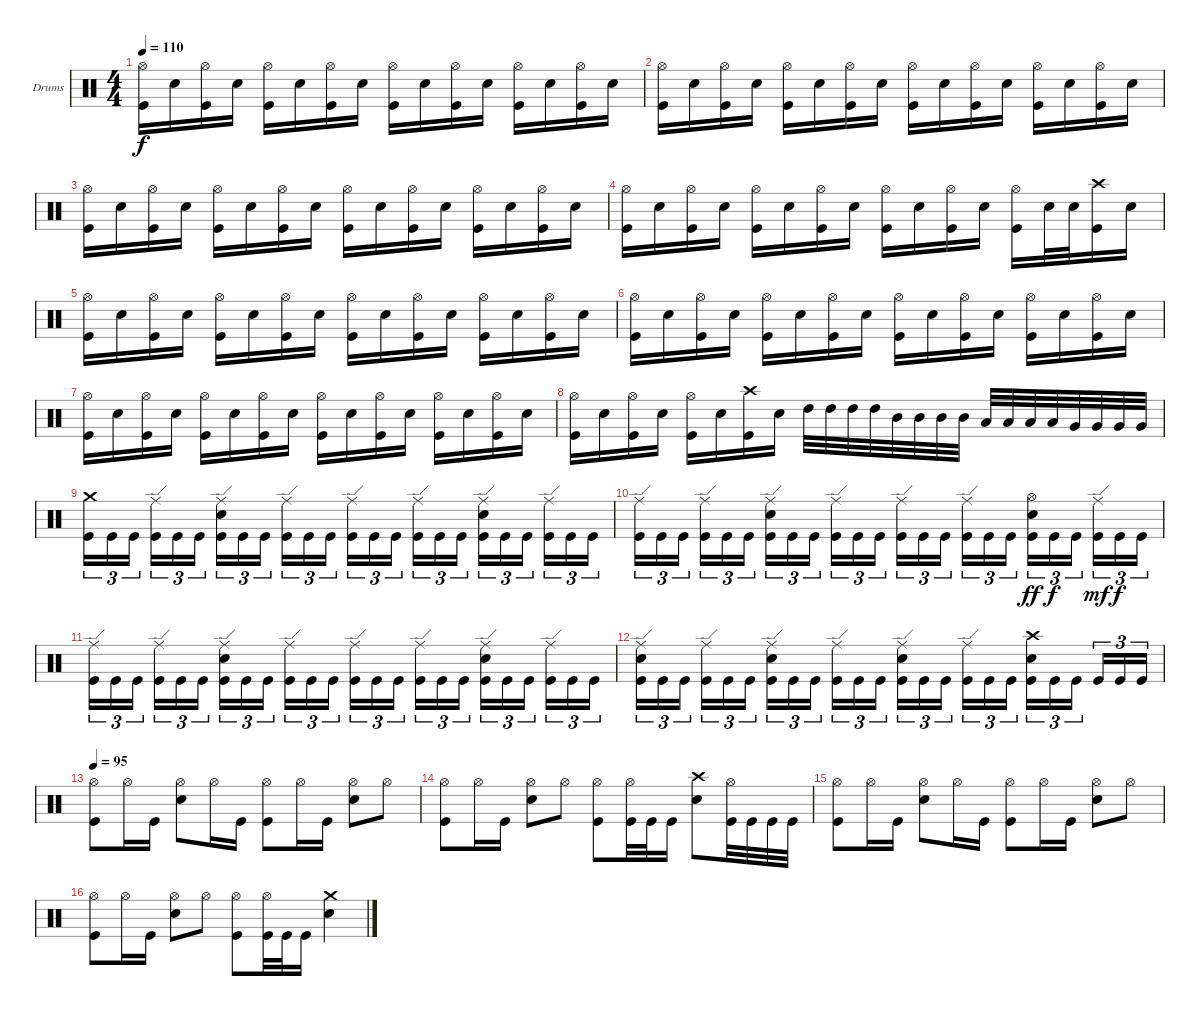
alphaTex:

\defaultSystemsLayout 4
\bracketExtendMode groupsimilarinstruments
\firstSystemTrackNameOrientation horizontal
\otherSystemsTrackNameOrientation horizontal
\track ("Drumkit" "Drums") {instrument percussion}
\staff {score}
\articulation defaults
\ts (4 4)
\tempo 110
\clef neutral
\ks c
("Hi-Hat (open)" "Kick (hit)").16{dy f} "Snare (hit) 2".16 ("Hi-Hat (open)" "Kick (hit)").16 "Snare (hit) 2".16 ("Hi-Hat (open)" "Kick (hit)").16 "Snare (hit) 2".16 ("Hi-Hat (open)" "Kick (hit)").16 "Snare (hit) 2".16 ("Hi-Hat (open)" "Kick (hit)").16 "Snare (hit) 2".16 ("Hi-Hat (open)" "Kick (hit)").16 "Snare (hit) 2".16 ("Hi-Hat (open)" "Kick (hit)").16 "Snare (hit) 2".16 ("Hi-Hat (open)" "Kick (hit)").16 "Snare (hit) 2".16 |
("Hi-Hat (open)" "Kick (hit)").16 "Snare (hit) 2".16 ("Hi-Hat (open)" "Kick (hit)").16 "Snare (hit) 2".16 ("Hi-Hat (open)" "Kick (hit)").16 "Snare (hit) 2".16 ("Hi-Hat (open)" "Kick (hit)").16 "Snare (hit) 2".16 ("Hi-Hat (open)" "Kick (hit)").16 "Snare (hit) 2".16 ("Hi-Hat (open)" "Kick (hit)").16 "Snare (hit) 2".16 ("Hi-Hat (open)" "Kick (hit)").16 "Snare (hit) 2".16 ("Hi-Hat (open)" "Kick (hit)").16 "Snare (hit) 2".16 |
("Hi-Hat (open)" "Kick (hit)").16 "Snare (hit) 2".16 ("Hi-Hat (open)" "Kick (hit)").16 "Snare (hit) 2".16 ("Hi-Hat (open)" "Kick (hit)").16 "Snare (hit) 2".16 ("Hi-Hat (open)" "Kick (hit)").16 "Snare (hit) 2".16 ("Hi-Hat (open)" "Kick (hit)").16 "Snare (hit) 2".16 ("Hi-Hat (open)" "Kick (hit)").16 "Snare (hit) 2".16 ("Hi-Hat (open)" "Kick (hit)").16 "Snare (hit) 2".16 ("Hi-Hat (open)" "Kick (hit)").16 "Snare (hit) 2".16 |
("Hi-Hat (open)" "Kick (hit)").16 "Snare (hit) 2".16 ("Hi-Hat (open)" "Kick (hit)").16 "Snare (hit) 2".16 ("Hi-Hat (open)" "Kick (hit)").16 "Snare (hit) 2".16 ("Hi-Hat (open)" "Kick (hit)").16 "Snare (hit) 2".16 ("Hi-Hat (open)" "Kick (hit)").16 "Snare (hit) 2".16 ("Hi-Hat (open)" "Kick (hit)").16 "Snare (hit) 2".16 ("Hi-Hat (open)" "Kick (hit)").16 "Snare (hit) 2".32 "Snare (hit) 2".32 ("Crash high (hit)" "Kick (hit)").16 "Snare (hit) 2".16 |
("Hi-Hat (open)" "Kick (hit)").16 "Snare (hit) 2".16 ("Hi-Hat (open)" "Kick (hit)").16 "Snare (hit) 2".16 ("Hi-Hat (open)" "Kick (hit)").16 "Snare (hit) 2".16 ("Hi-Hat (open)" "Kick (hit)").16 "Snare (hit) 2".16 ("Hi-Hat (open)" "Kick (hit)").16 "Snare (hit) 2".16 ("Hi-Hat (open)" "Kick (hit)").16 "Snare (hit) 2".16 ("Hi-Hat (open)" "Kick (hit)").16 "Snare (hit) 2".16 ("Hi-Hat (open)" "Kick (hit)").16 "Snare (hit) 2".16 |
("Hi-Hat (open)" "Kick (hit)").16 "Snare (hit) 2".16 ("Hi-Hat (open)" "Kick (hit)").16 "Snare (hit) 2".16 ("Hi-Hat (open)" "Kick (hit)").16 "Snare (hit) 2".16 ("Hi-Hat (open)" "Kick (hit)").16 "Snare (hit) 2".16 ("Hi-Hat (open)" "Kick (hit)").16 "Snare (hit) 2".16 ("Hi-Hat (open)" "Kick (hit)").16 "Snare (hit) 2".16 ("Hi-Hat (open)" "Kick (hit)").16 "Snare (hit) 2".16 ("Hi-Hat (open)" "Kick (hit)").16 "Snare (hit) 2".16 |
("Hi-Hat (open)" "Kick (hit)").16 "Snare (hit) 2".16 ("Hi-Hat (open)" "Kick (hit)").16 "Snare (hit) 2".16 ("Hi-Hat (open)" "Kick (hit)").16 "Snare (hit) 2".16 ("Hi-Hat (open)" "Kick (hit)").16 "Snare (hit) 2".16 ("Hi-Hat (open)" "Kick (hit)").16 "Snare (hit) 2".16 ("Hi-Hat (open)" "Kick (hit)").16 "Snare (hit) 2".16 ("Hi-Hat (open)" "Kick (hit)").16 "Snare (hit) 2".16 ("Hi-Hat (open)" "Kick (hit)").16 "Snare (hit) 2".16 |
("Hi-Hat (open)" "Kick (hit)").16 "Snare (hit) 2".16 ("Hi-Hat (open)" "Kick (hit)").16 "Snare (hit) 2".16 ("Hi-Hat (open)" "Kick (hit)").16 "Snare (hit) 2".16 ("Crash high (hit)" "Kick (hit)").16 "Snare (hit) 2".16 "High Tom (hit)".32 "High Tom (hit)".32 "High Tom (hit)".32 "High Tom (hit)".32 "Mid Tom (hit)".32 "Mid Tom (hit)".32 "Mid Tom (hit)".32 "Mid Tom (hit)".32 "Low Tom (hit)".32 "Low Tom (hit)".32 "Low Tom (hit)".32 "Low Tom (hit)".32 "Very Low Tom (hit)".32 "Very Low Tom (hit)".32 "Very Low Tom (hit)".32 "Very Low Tom (hit)".32 |
("Crash medium (hit)" "Kick (hit)").16{tu (3 2)} "Kick (hit)".16{tu (3 2)} "Kick (hit)".16{tu (3 2)} ("Ride (edge)" "Kick (hit)").16{tu (3 2)} "Kick (hit)".16{tu (3 2)} "Kick (hit)".16{tu (3 2)} ("Ride (edge)" "Snare (hit) 2" "Kick (hit)").16{tu (3 2)} "Kick (hit)".16{tu (3 2)} "Kick (hit)".16{tu (3 2)} ("Ride (edge)" "Kick (hit)").16{tu (3 2)} "Kick (hit)".16{tu (3 2)} "Kick (hit)".16{tu (3 2)} ("Ride (edge)" "Kick (hit)").16{tu (3 2)} "Kick (hit)".16{tu (3 2)} "Kick (hit)".16{tu (3 2)} ("Ride (edge)" "Kick (hit)").16{tu (3 2)} "Kick (hit)".16{tu (3 2)} "Kick (hit)".16{tu (3 2)} ("Ride (edge)" "Snare (hit) 2" "Kick (hit)").16{tu (3 2)} "Kick (hit)".16{tu (3 2)} "Kick (hit)".16{tu (3 2)} ("Ride (edge)" "Kick (hit)").16{tu (3 2)} "Kick (hit)".16{tu (3 2)} "Kick (hit)".16{tu (3 2)} |
("Ride (edge)" "Kick (hit)").16{tu (3 2)} "Kick (hit)".16{tu (3 2)} "Kick (hit)".16{tu (3 2)} ("Ride (edge)" "Kick (hit)").16{tu (3 2)} "Kick (hit)".16{tu (3 2)} "Kick (hit)".16{tu (3 2)} ("Ride (edge)" "Snare (hit) 2" "Kick (hit)").16{tu (3 2)} "Kick (hit)".16{tu (3 2)} "Kick (hit)".16{tu (3 2)} ("Ride (edge)" "Kick (hit)").16{tu (3 2)} "Kick (hit)".16{tu (3 2)} "Kick (hit)".16{tu (3 2)} ("Ride (edge)" "Kick (hit)").16{tu (3 2)} "Kick (hit)".16{tu (3 2)} "Kick (hit)".16{tu (3 2)} ("Ride (edge)" "Kick (hit)").16{tu (3 2)} "Kick (hit)".16{tu (3 2)} "Kick (hit)".16{tu (3 2)} ("Hi-Hat (open)" "Snare (hit) 2" "Kick (hit)").16{tu (3 2) dy ff} "Kick (hit)".16{tu (3 2) dy f} "Kick (hit)".16{tu (3 2)} ("Ride (edge)" "Kick (hit)").16{tu (3 2) dy mf} "Kick (hit)".16{tu (3 2) dy f} "Kick (hit)".16{tu (3 2)} |
("Ride (edge)" "Kick (hit)").16{tu (3 2)} "Kick (hit)".16{tu (3 2)} "Kick (hit)".16{tu (3 2)} ("Ride (edge)" "Kick (hit)").16{tu (3 2)} "Kick (hit)".16{tu (3 2)} "Kick (hit)".16{tu (3 2)} ("Ride (edge)" "Snare (hit) 2" "Kick (hit)").16{tu (3 2)} "Kick (hit)".16{tu (3 2)} "Kick (hit)".16{tu (3 2)} ("Ride (edge)" "Kick (hit)").16{tu (3 2)} "Kick (hit)".16{tu (3 2)} "Kick (hit)".16{tu (3 2)} ("Ride (edge)" "Kick (hit)").16{tu (3 2)} "Kick (hit)".16{tu (3 2)} "Kick (hit)".16{tu (3 2)} ("Ride (edge)" "Kick (hit)").16{tu (3 2)} "Kick (hit)".16{tu (3 2)} "Kick (hit)".16{tu (3 2)} ("Ride (edge)" "Snare (hit) 2" "Kick (hit)").16{tu (3 2)} "Kick (hit)".16{tu (3 2)} "Kick (hit)".16{tu (3 2)} ("Ride (edge)" "Kick (hit)").16{tu (3 2)} "Kick (hit)".16{tu (3 2)} "Kick (hit)".16{tu (3 2)} |
("Ride (edge)" "Snare (hit) 2" "Kick (hit)").16{tu (3 2)} "Kick (hit)".16{tu (3 2)} "Kick (hit)".16{tu (3 2)} ("Ride (edge)" "Kick (hit)").16{tu (3 2)} "Kick (hit)".16{tu (3 2)} "Kick (hit)".16{tu (3 2)} ("Ride (edge)" "Snare (hit) 2" "Kick (hit)").16{tu (3 2)} "Kick (hit)".16{tu (3 2)} "Kick (hit)".16{tu (3 2)} ("Ride (edge)" "Kick (hit)").16{tu (3 2)} "Kick (hit)".16{tu (3 2)} "Kick (hit)".16{tu (3 2)} ("Ride (edge)" "Snare (hit) 2" "Kick (hit)").16{tu (3 2)} "Kick (hit)".16{tu (3 2)} "Kick (hit)".16{tu (3 2)} ("Ride (edge)" "Kick (hit)").16{tu (3 2)} "Kick (hit)".16{tu (3 2)} "Kick (hit)".16{tu (3 2)} ("Crash high (hit)" "Snare (hit) 2" "Kick (hit)").16{tu (3 2)} "Kick (hit)".16{tu (3 2)} "Kick (hit)".16{tu (3 2)} "Kick (hit)".16{tu (3 2)} "Kick (hit)".16{tu (3 2)} "Kick (hit)".16{tu (3 2)} |
\tempo 95
("Hi-Hat (open)" "Kick (hit)").8 "Hi-Hat (open)".16 "Kick (hit)".16 ("Hi-Hat (open)" "Snare (hit) 2").8 "Hi-Hat (open)".16 "Kick (hit)".16 ("Hi-Hat (open)" "Kick (hit)").8 "Hi-Hat (open)".16 "Kick (hit)".16 ("Hi-Hat (open)" "Snare (hit) 2").8 "Hi-Hat (open)".8 |
("Hi-Hat (open)" "Kick (hit)").8 "Hi-Hat (open)".16 "Kick (hit)".16 ("Hi-Hat (open)" "Snare (hit) 2").8 "Hi-Hat (open)".8 ("Hi-Hat (open)" "Kick (hit)").8 ("Hi-Hat (open)" "Kick (hit)").32 "Kick (hit)".32 "Kick (hit)".16 ("Crash high (hit)" "Snare (hit) 2").8 ("Hi-Hat (open)" "Kick (hit)").32 "Kick (hit)".32 "Kick (hit)".32 "Kick (hit)".32 |
("Hi-Hat (open)" "Kick (hit)").8 "Hi-Hat (open)".16 "Kick (hit)".16 ("Hi-Hat (open)" "Snare (hit) 2").8 "Hi-Hat (open)".16 "Kick (hit)".16 ("Hi-Hat (open)" "Kick (hit)").8 "Hi-Hat (open)".16 "Kick (hit)".16 ("Hi-Hat (open)" "Snare (hit) 2").8 "Hi-Hat (open)".8 |
("Hi-Hat (open)" "Kick (hit)").8 "Hi-Hat (open)".16 "Kick (hit)".16 ("Hi-Hat (open)" "Snare (hit) 2").8 "Hi-Hat (open)".8 ("Hi-Hat (open)" "Kick (hit)").8 ("Hi-Hat (open)" "Kick (hit)").32 "Kick (hit)".32 "Kick (hit)".16 ("Crash medium (hit)" "Snare (hit) 2").4
